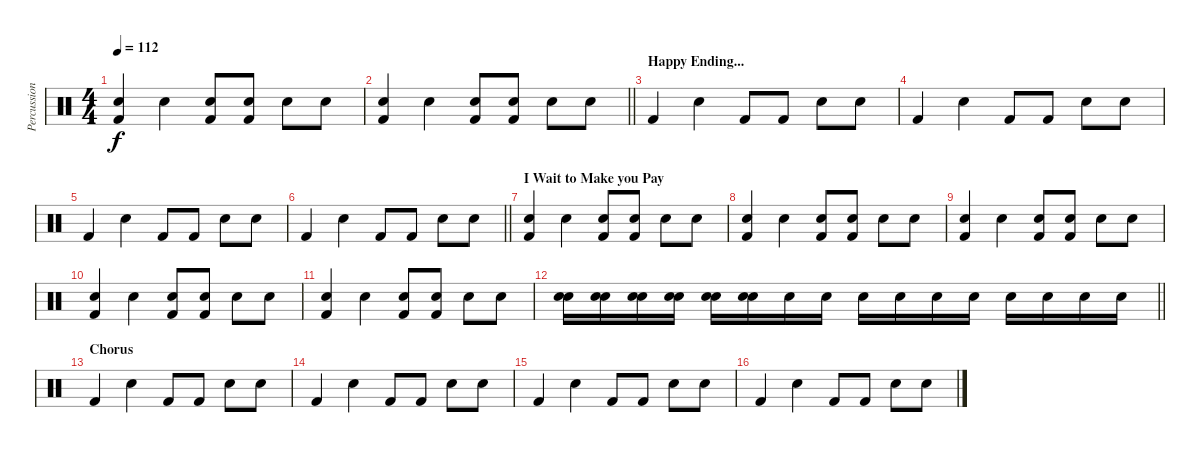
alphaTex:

\track ("Percussions" "Percussion") {instrument percussion}
\staff {score}
\articulation defaults
\ts (4 4)
\tempo 112
\clef neutral
\ks c
("Electric Snare (hit)" "Kick (hit) 2").4{dy f} "Electric Snare (hit)".4 ("Electric Snare (hit)" "Kick (hit) 2").8 ("Electric Snare (hit)" "Kick (hit) 2").8 "Electric Snare (hit)".8 "Electric Snare (hit)".8 |
\barLineRight lightlight
("Electric Snare (hit)" "Kick (hit) 2").4 "Electric Snare (hit)".4 ("Electric Snare (hit)" "Kick (hit) 2").8 ("Electric Snare (hit)" "Kick (hit) 2").8 "Electric Snare (hit)".8 "Electric Snare (hit)".8 |
\section ("" "Happy Ending...")
"Kick (hit) 2".4 "Electric Snare (hit)".4 "Kick (hit) 2".8 "Kick (hit) 2".8 "Electric Snare (hit)".8 "Electric Snare (hit)".8 |
"Kick (hit) 2".4 "Electric Snare (hit)".4 "Kick (hit) 2".8 "Kick (hit) 2".8 "Electric Snare (hit)".8 "Electric Snare (hit)".8 |
"Kick (hit) 2".4 "Electric Snare (hit)".4 "Kick (hit) 2".8 "Kick (hit) 2".8 "Electric Snare (hit)".8 "Electric Snare (hit)".8 |
\barLineRight lightlight "Kick (hit) 2".4 "Electric Snare (hit)".4 "Kick (hit) 2".8 "Kick (hit) 2".8 "Electric Snare (hit)".8 "Electric Snare (hit)".8
|
\section ("" "I Wait to Make you Pay")
("Snare (hit)" "Kick (hit) 2").4 "Electric Snare (hit)".4 ("Snare (hit)" "Kick (hit) 2").8 ("Snare (hit)" "Kick (hit) 2").8 "Electric Snare (hit)".8 "Electric Snare (hit)".8 |
("Snare (hit)" "Kick (hit) 2").4 "Electric Snare (hit)".4 ("Snare (hit)" "Kick (hit) 2").8 ("Snare (hit)" "Kick (hit) 2").8 "Electric Snare (hit)".8 "Electric Snare (hit)".8 |
("Snare (hit)" "Kick (hit) 2").4 "Electric Snare (hit)".4 ("Snare (hit)" "Kick (hit) 2").8 ("Snare (hit)" "Kick (hit) 2").8 "Electric Snare (hit)".8 "Electric Snare (hit)".8 |
("Snare (hit)" "Kick (hit) 2").4 "Electric Snare (hit)".4 ("Snare (hit)" "Kick (hit) 2").8 ("Snare (hit)" "Kick (hit) 2").8 "Electric Snare (hit)".8 "Electric Snare (hit)".8 |
("Snare (hit)" "Kick (hit) 2").4 "Electric Snare (hit)".4 ("Snare (hit)" "Kick (hit) 2").8 ("Snare (hit)" "Kick (hit) 2").8 "Electric Snare (hit)".8 "Electric Snare (hit)".8 |
\barLineRight lightlight
("Snare (hit)" "Electric Snare (hit)").16 ("Electric Snare (hit)" "Electric Snare (hit)").16 ("Snare (hit)" "Electric Snare (hit)").16 ("Snare (hit)" "Electric Snare (hit)").16 ("Electric Snare (hit)" "Electric Snare (hit)").16 ("Electric Snare (hit)" "Electric Snare (hit)").16 "Electric Snare (hit)".16 "Electric Snare (hit)".16 "Electric Snare (hit)".16 "Electric Snare (hit)".16 "Electric Snare (hit)".16 "Electric Snare (hit)".16 "Electric Snare (hit)".16 "Electric Snare (hit)".16 "Electric Snare (hit)".16 "Electric Snare (hit)".16 |
\section ("" "Chorus")
"Kick (hit) 2".4 "Electric Snare (hit)".4 "Kick (hit) 2".8 "Kick (hit) 2".8 "Electric Snare (hit)".8 "Electric Snare (hit)".8 |
"Kick (hit) 2".4 "Electric Snare (hit)".4 "Kick (hit) 2".8 "Kick (hit) 2".8 "Electric Snare (hit)".8 "Electric Snare (hit)".8 |
"Kick (hit) 2".4 "Electric Snare (hit)".4 "Kick (hit) 2".8 "Kick (hit) 2".8 "Electric Snare (hit)".8 "Electric Snare (hit)".8 |
"Kick (hit) 2".4 "Electric Snare (hit)".4 "Kick (hit) 2".8 "Kick (hit) 2".8 "Electric Snare (hit)".8 "Electric Snare (hit)".8
